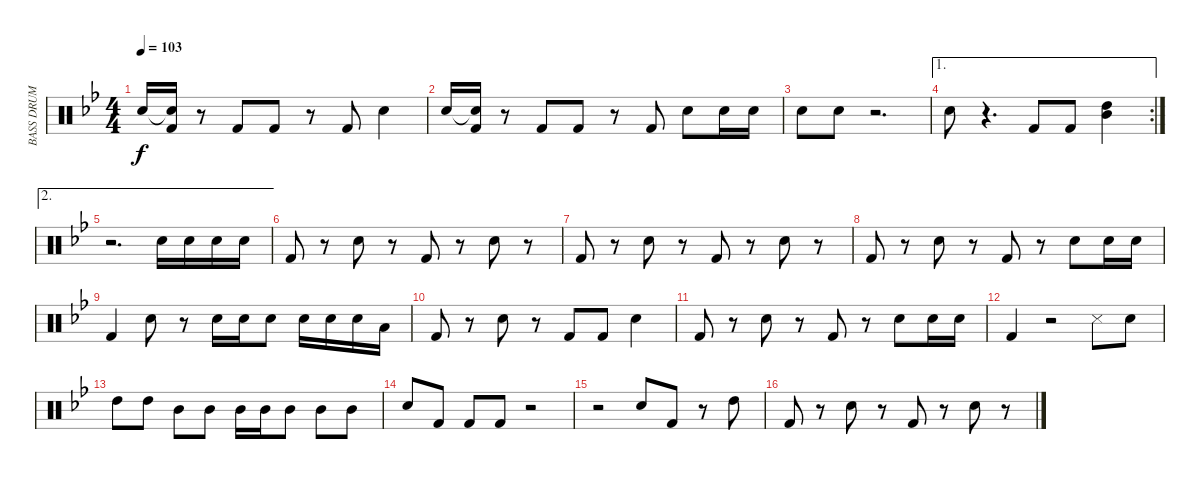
\track ("BASS DRUM / SNARE / TOMS" "BASS DRUM ") {instrument percussion}
\staff {score}
\articulation defaults
\ts (4 4)
\tempo 103
\clef neutral
\ks bb "Snare (hit) 2".16{dy f}
("Snare (hit) 2"{t} "Kick (hit) 2").16 r.8 "Kick (hit) 2".8 "Kick (hit) 2".8 r.8 "Kick (hit) 2".8 "Snare (hit) 2".4 |
"Snare (hit) 2".16 ("Snare (hit) 2"{t} "Kick (hit) 2").16 r.8 "Kick (hit) 2".8 "Kick (hit) 2".8 r.8 "Kick (hit) 2".8 "Snare (hit) 2".8 "Snare (hit) 2".16 "Snare (hit) 2".16 |
"Snare (hit) 2".8 "Electric Snare (hit)".8 r.2{d} |
\ae 1
\rc 2 "Snare (hit) 2".8
r.4{d} "Kick (hit) 2".8 "Kick (hit) 2".8 ("High Tom (hit)" "Mid Tom (hit)").4 |
\ae 2
r.2{d} "Snare (hit) 2".16 "Snare (hit) 2".16 "Snare (hit) 2".16 "Snare (hit) 2".16 |
"Kick (hit) 2".8 r.8 "Snare (hit) 2".8 r.8 "Kick (hit) 2".8 r.8 "Snare (hit) 2".8 r.8 |
"Kick (hit) 2".8 r.8 "Snare (hit) 2".8 r.8 "Kick (hit) 2".8 r.8 "Snare (hit) 2".8 r.8 |
"Kick (hit) 2".8 r.8 "Snare (hit) 2".8 r.8 "Kick (hit) 2".8 r.8 "Snare (hit) 2".8 "Snare (hit) 2".16 "Snare (hit) 2".16 |
"Kick (hit) 2".4 "Snare (hit) 2".8 r.8 "Snare (hit) 2".16 "Snare (hit) 2".16 "Snare (hit) 2".8 "Snare (hit) 2".16 "Snare (hit) 2".16 "Snare (hit) 2".16 "Low Tom (hit)".16 |
"Kick (hit) 2".8 r.8 "Snare (hit) 2".8 r.8 "Kick (hit) 2".8 "Kick (hit) 2".8 "Snare (hit) 2".4 |
"Kick (hit) 2".8 r.8 "Snare (hit) 2".8 r.8 "Kick (hit) 2".8 r.8 "Snare (hit) 2".8 "Snare (hit) 2".16 "Snare (hit) 2".16 |
"Kick (hit) 2".4 r.2 "Snare (side stick) 3".8 "Snare (hit) 2".8 |
"High Tom (hit)".8 "High Tom (hit)".8 "Mid Tom (hit)".8 "Mid Tom (hit)".8 "Mid Tom (hit)".16 "Mid Tom (hit)".16 "Mid Tom (hit)".8 "Mid Tom (hit)".8 "Mid Tom (hit)".8 |
"Snare (hit) 2".8 "Kick (hit) 2".8 "Kick (hit) 2".8 "Kick (hit) 2".8 r.2 |
r.2 "Snare (hit) 2".8 "Kick (hit) 2".8 r.8 "High Tom (hit)".8 |
"Kick (hit) 2".8 r.8 "Snare (hit) 2".8 r.8 "Kick (hit) 2".8 r.8 "Snare (hit) 2".8 r.8
